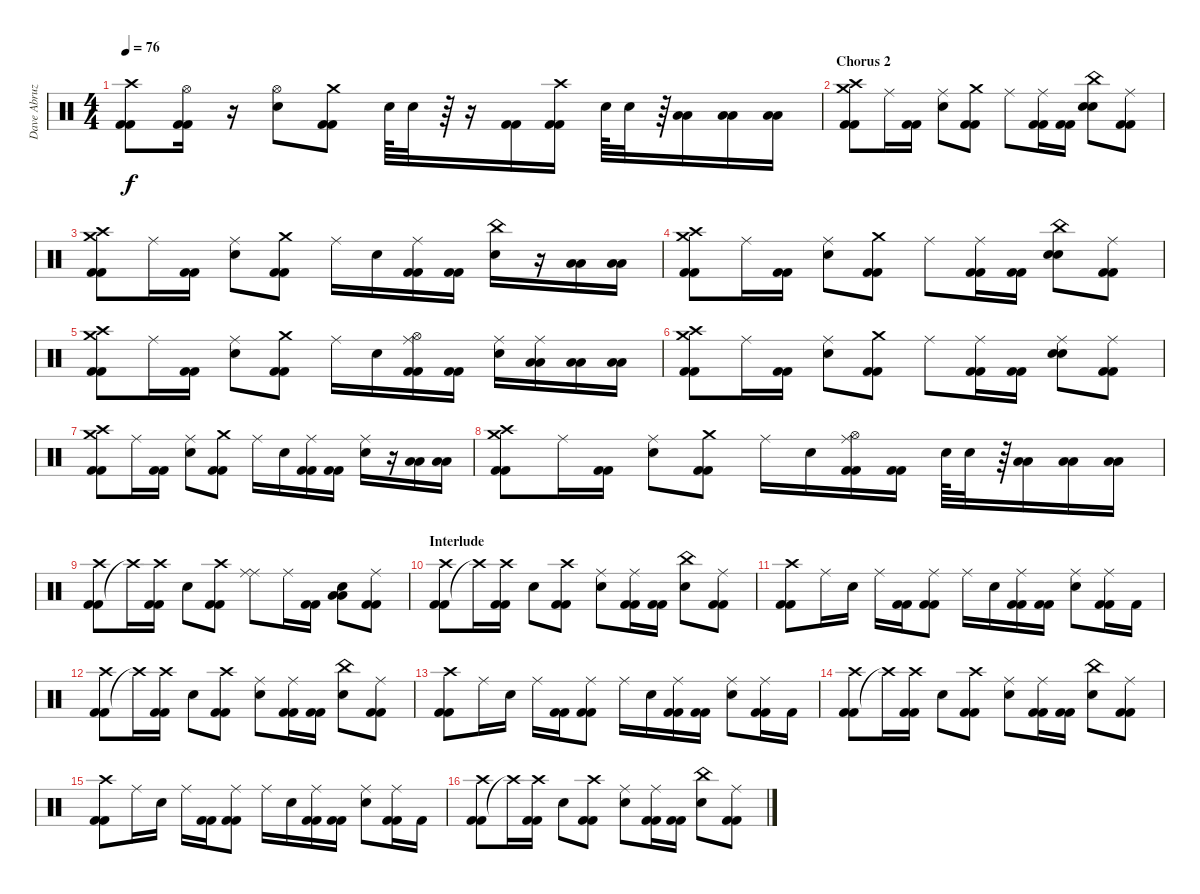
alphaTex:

\track ("Dave Abruzzese" "Dave Abruz") {instrument percussion}
\staff {score}
\articulation defaults
\ts (4 4)
\tempo 76
\clef neutral
\ks c
("Kick (hit) 2" "Kick (hit) 2" "Crash high (hit)").8{dy f} ("Kick (hit) 2" "Kick (hit) 2" "Hi-Hat (open)").16 r.16 ("Snare (hit) 2" "Hi-Hat (open)").8 ("Kick (hit) 2" "Kick (hit) 2" "Crash medium (hit)").8 "Snare (hit) 2".64 "Snare (hit) 2".32 r.64 r.16 ("Kick (hit) 2" "Kick (hit) 2").16 ("Kick (hit) 2" "Kick (hit) 2" "Crash high (hit)").16 "Snare (hit) 2".64 "Snare (hit) 2".32 r.64 ("Low Tom (hit)" "Low Tom (hit)").16 ("Low Tom (hit)" "Low Tom (hit)").16 ("Low Tom (hit)" "Low Tom (hit)").16 |
\section ("" "Chorus 2")
("Crash medium (hit)" "Kick (hit) 2" "Kick (hit) 2" "Crash high (hit)").8 "Ride (middle)".16 ("Kick (hit) 2" "Kick (hit) 2").16 ("Snare (hit) 2" "Ride (middle)").8 ("Kick (hit) 2" "Kick (hit) 2" "Crash medium (hit)").8 "Ride (middle)".8 ("Kick (hit) 2" "Kick (hit) 2" "Ride (middle)").16 ("Kick (hit) 2" "Kick (hit) 2").16 ("Snare (hit) 2" "Snare (hit) 2" "China (hit)").8 ("Kick (hit) 2" "Kick (hit) 2" "Ride (middle)").8 |
("Crash medium (hit)" "Kick (hit) 2" "Kick (hit) 2" "Crash high (hit)").8 "Ride (middle)".16 ("Kick (hit) 2" "Kick (hit) 2").16 ("Snare (hit) 2" "Ride (middle)").8 ("Kick (hit) 2" "Kick (hit) 2" "Crash medium (hit)").8 "Ride (middle)".16 "Snare (hit) 2".16 ("Kick (hit) 2" "Kick (hit) 2" "Ride (middle)").16 ("Kick (hit) 2" "Kick (hit) 2").16 ("Snare (hit) 2" "China (hit)").16 r.16 ("Low Tom (hit)" "Low Tom (hit)").16 ("Low Tom (hit)" "Low Tom (hit)").16 |
("Crash medium (hit)" "Kick (hit) 2" "Kick (hit) 2" "Crash high (hit)").8 "Ride (middle)".16 ("Kick (hit) 2" "Kick (hit) 2").16 ("Snare (hit) 2" "Ride (middle)").8 ("Kick (hit) 2" "Kick (hit) 2" "Crash medium (hit)").8 "Ride (middle)".8 ("Kick (hit) 2" "Kick (hit) 2" "Ride (middle)").16 ("Kick (hit) 2" "Kick (hit) 2").16 ("Snare (hit) 2" "Snare (hit) 2" "China (hit)").8 ("Kick (hit) 2" "Kick (hit) 2" "Ride (middle)").8 |
("Crash medium (hit)" "Kick (hit) 2" "Kick (hit) 2" "Crash high (hit)").8 "Ride (middle)".16 ("Kick (hit) 2" "Kick (hit) 2").16 ("Snare (hit) 2" "Ride (middle)").8 ("Kick (hit) 2" "Kick (hit) 2" "Crash medium (hit)").8 "Ride (middle)".16 "Snare (hit) 2".16 ("Hi-Hat (open)" "Kick (hit) 2" "Kick (hit) 2" "Ride (middle)").16 ("Kick (hit) 2" "Kick (hit) 2").16 ("Snare (hit) 2" "Ride (middle)").16 ("Low Tom (hit)" "Low Tom (hit)" "Ride (middle)").16 ("Low Tom (hit)" "Low Tom (hit)").16 ("Low Tom (hit)" "Low Tom (hit)").16 |
("Crash medium (hit)" "Kick (hit) 2" "Kick (hit) 2" "Crash high (hit)").8 "Ride (middle)".16 ("Kick (hit) 2" "Kick (hit) 2").16 ("Snare (hit) 2" "Ride (middle)").8 ("Kick (hit) 2" "Kick (hit) 2" "Crash medium (hit)").8 "Ride (middle)".8 ("Kick (hit) 2" "Kick (hit) 2" "Ride (middle)").16 ("Kick (hit) 2" "Kick (hit) 2").16 ("Snare (hit) 2" "Snare (hit) 2" "Ride (middle)").8 ("Kick (hit) 2" "Kick (hit) 2" "Ride (middle)").8 |
("Crash medium (hit)" "Kick (hit) 2" "Kick (hit) 2" "Crash high (hit)").8 "Ride (middle)".16 ("Kick (hit) 2" "Kick (hit) 2").16 ("Snare (hit) 2" "Ride (middle)").8 ("Kick (hit) 2" "Kick (hit) 2" "Crash medium (hit)").8 "Ride (middle)".16 "Snare (hit) 2".16 ("Kick (hit) 2" "Kick (hit) 2" "Ride (middle)").16 ("Kick (hit) 2" "Kick (hit) 2").16 ("Snare (hit) 2" "Ride (middle)").16 r.16 ("Low Tom (hit)" "Low Tom (hit)").16 ("Low Tom (hit)" "Low Tom (hit)").16 |
("Crash medium (hit)" "Kick (hit) 2" "Kick (hit) 2" "Crash high (hit)").8 "Ride (middle)".16 ("Kick (hit) 2" "Kick (hit) 2").16 ("Snare (hit) 2" "Ride (middle)").8 ("Kick (hit) 2" "Kick (hit) 2" "Crash medium (hit)").8 "Ride (middle)".16 "Snare (hit) 2".16 ("Hi-Hat (open)" "Kick (hit) 2" "Kick (hit) 2" "Ride (middle)").16 ("Kick (hit) 2" "Kick (hit) 2").16 "Snare (hit) 2".64 "Snare (hit) 2".32 r.64 ("Low Tom (hit)" "Low Tom (hit)").16 ("Low Tom (hit)" "Low Tom (hit)").16 ("Low Tom (hit)" "Low Tom (hit)").16 |
("Kick (hit) 2" "Kick (hit) 2" "Crash high (hit)").8 "Crash high (hit)"{t}.16 ("Kick (hit) 2" "Kick (hit) 2" "Crash high (hit)").16 "Snare (hit)".8 ("Kick (hit) 2" "Kick (hit) 2" "Crash high (hit)").8 ("Ride (middle)" "Ride (middle)").8 "Ride (middle)".16 ("Kick (hit) 2" "Kick (hit) 2").16 ("Low Tom (hit)" "Low Tom (hit)" "Snare (hit) 2").8 ("Kick (hit) 2" "Kick (hit) 2" "Ride (middle)").8 |
\section ("" "Interlude")
("Kick (hit) 2" "Kick (hit) 2" "Crash high (hit)").8 "Crash high (hit)"{t}.16 ("Kick (hit) 2" "Kick (hit) 2" "Crash high (hit)").16 "Snare (hit)".8 ("Kick (hit) 2" "Kick (hit) 2" "Crash high (hit)").8 ("Ride (middle)" "Snare (hit)").8 ("Kick (hit) 2" "Kick (hit) 2" "Ride (middle)").16 ("Kick (hit) 2" "Kick (hit) 2").16 ("Snare (hit) 2" "China (hit)").8 ("Kick (hit) 2" "Kick (hit) 2" "Ride (middle)").8 |
("Kick (hit) 2" "Kick (hit) 2" "Crash high (hit)").8 "Ride (middle)".16 "Snare (hit) 2".16 "Ride (middle)".16 ("Kick (hit) 2" "Kick (hit) 2").16 ("Kick (hit) 2" "Kick (hit) 2" "Ride (middle)").8 "Ride (middle)".16 "Snare (hit) 2".16 ("Kick (hit) 2" "Kick (hit) 2" "Ride (middle)").16 ("Kick (hit) 2" "Kick (hit) 2").16 ("Snare (hit) 2" "Ride (middle)").8 ("Kick (hit) 2" "Kick (hit) 2" "Ride (middle)").16 "Kick (hit) 2".16 |
("Kick (hit) 2" "Kick (hit) 2" "Crash high (hit)").8 "Crash high (hit)"{t}.16 ("Kick (hit) 2" "Kick (hit) 2" "Crash high (hit)").16 "Snare (hit)".8 ("Kick (hit) 2" "Kick (hit) 2" "Crash high (hit)").8 ("Ride (middle)" "Snare (hit)").8 ("Kick (hit) 2" "Kick (hit) 2" "Ride (middle)").16 ("Kick (hit) 2" "Kick (hit) 2").16 ("Snare (hit) 2" "China (hit)").8 ("Kick (hit) 2" "Kick (hit) 2" "Ride (middle)").8 |
("Kick (hit) 2" "Kick (hit) 2" "Crash high (hit)").8 "Ride (middle)".16 "Snare (hit) 2".16 "Ride (middle)".16 ("Kick (hit) 2" "Kick (hit) 2").16 ("Kick (hit) 2" "Kick (hit) 2" "Ride (middle)").8 "Ride (middle)".16 "Snare (hit) 2".16 ("Kick (hit) 2" "Kick (hit) 2" "Ride (middle)").16 ("Kick (hit) 2" "Kick (hit) 2").16 ("Snare (hit) 2" "Ride (middle)").8 ("Kick (hit) 2" "Kick (hit) 2" "Ride (middle)").16 "Kick (hit) 2".16 |
("Kick (hit) 2" "Kick (hit) 2" "Crash high (hit)").8 "Crash high (hit)"{t}.16 ("Kick (hit) 2" "Kick (hit) 2" "Crash high (hit)").16 "Snare (hit)".8 ("Kick (hit) 2" "Kick (hit) 2" "Crash high (hit)").8 ("Ride (middle)" "Snare (hit)").8 ("Kick (hit) 2" "Kick (hit) 2" "Ride (middle)").16 ("Kick (hit) 2" "Kick (hit) 2").16 ("Snare (hit) 2" "China (hit)").8 ("Kick (hit) 2" "Kick (hit) 2" "Ride (middle)").8 |
("Kick (hit) 2" "Kick (hit) 2" "Crash high (hit)").8 "Ride (middle)".16 "Snare (hit) 2".16 "Ride (middle)".16 ("Kick (hit) 2" "Kick (hit) 2").16 ("Kick (hit) 2" "Kick (hit) 2" "Ride (middle)").8 "Ride (middle)".16 "Snare (hit) 2".16 ("Kick (hit) 2" "Kick (hit) 2" "Ride (middle)").16 ("Kick (hit) 2" "Kick (hit) 2").16 ("Snare (hit) 2" "Ride (middle)").8 ("Kick (hit) 2" "Kick (hit) 2" "Ride (middle)").16 "Kick (hit) 2".16 |
("Kick (hit) 2" "Kick (hit) 2" "Crash high (hit)").8 "Crash high (hit)"{t}.16 ("Kick (hit) 2" "Kick (hit) 2" "Crash high (hit)").16 "Snare (hit)".8 ("Kick (hit) 2" "Kick (hit) 2" "Crash high (hit)").8 ("Ride (middle)" "Snare (hit)").8 ("Kick (hit) 2" "Kick (hit) 2" "Ride (middle)").16 ("Kick (hit) 2" "Kick (hit) 2").16 ("Snare (hit) 2" "China (hit)").8 ("Kick (hit) 2" "Kick (hit) 2" "Ride (middle)").8
